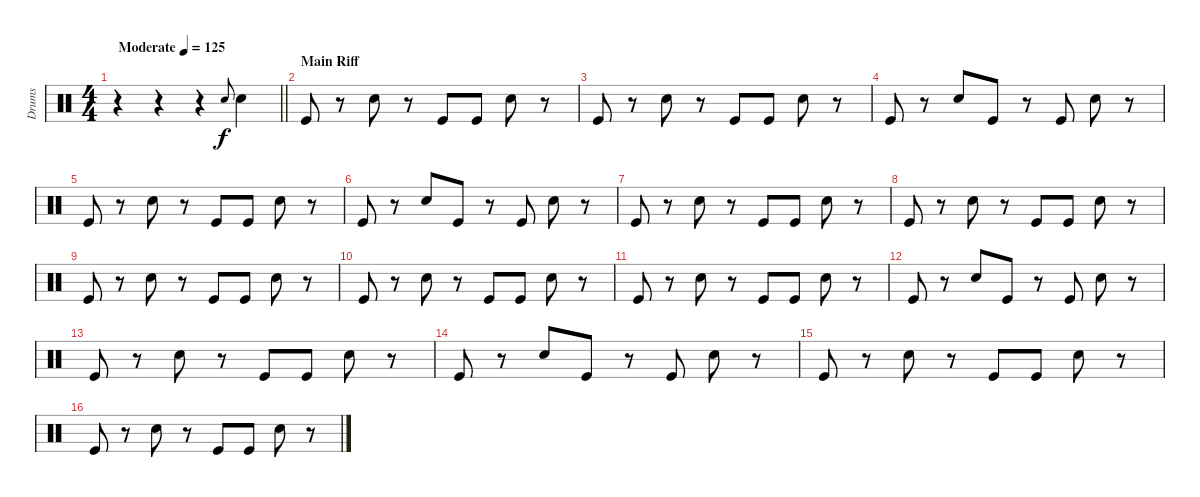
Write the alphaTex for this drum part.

\track ("Drums" "Drums") {instrument percussion}
\staff {score}
\articulation defaults
\ts (4 4)
\tempo (125 "Moderate")
\clef neutral
\barLineRight lightlight
\ks c
r.4{dy f} r.4 r.4 "Snare (hit) 2".8{gr onbeat} "Snare (hit) 2".4 |
\section ("" "Main Riff")
"Kick (hit)".8 r.8 "Snare (hit) 2".8 r.8 "Kick (hit)".8 "Kick (hit)".8 "Snare (hit) 2".8 r.8 |
"Kick (hit)".8 r.8 "Snare (hit) 2".8 r.8 "Kick (hit)".8 "Kick (hit)".8 "Snare (hit) 2".8 r.8 |
"Kick (hit)".8 r.8 "Snare (hit) 2".8 "Kick (hit)".8 r.8 "Kick (hit)".8 "Snare (hit) 2".8 r.8 |
"Kick (hit)".8 r.8 "Snare (hit) 2".8 r.8 "Kick (hit)".8 "Kick (hit)".8 "Snare (hit) 2".8 r.8 |
"Kick (hit)".8 r.8 "Snare (hit) 2".8 "Kick (hit)".8 r.8 "Kick (hit)".8 "Snare (hit) 2".8 r.8 |
"Kick (hit)".8 r.8 "Snare (hit) 2".8 r.8 "Kick (hit)".8 "Kick (hit)".8 "Snare (hit) 2".8 r.8 |
"Kick (hit)".8 r.8 "Snare (hit) 2".8 r.8 "Kick (hit)".8 "Kick (hit)".8 "Snare (hit) 2".8 r.8 |
"Kick (hit)".8 r.8 "Snare (hit) 2".8 r.8 "Kick (hit)".8 "Kick (hit)".8 "Snare (hit) 2".8 r.8 |
"Kick (hit)".8 r.8 "Snare (hit) 2".8 r.8 "Kick (hit)".8 "Kick (hit)".8 "Snare (hit) 2".8 r.8 |
"Kick (hit)".8 r.8 "Snare (hit) 2".8 r.8 "Kick (hit)".8 "Kick (hit)".8 "Snare (hit) 2".8 r.8 |
"Kick (hit)".8 r.8 "Snare (hit) 2".8 "Kick (hit)".8 r.8 "Kick (hit)".8 "Snare (hit) 2".8 r.8 |
"Kick (hit)".8 r.8 "Snare (hit) 2".8 r.8 "Kick (hit)".8 "Kick (hit)".8 "Snare (hit) 2".8 r.8 |
"Kick (hit)".8 r.8 "Snare (hit) 2".8 "Kick (hit)".8 r.8 "Kick (hit)".8 "Snare (hit) 2".8 r.8 |
"Kick (hit)".8 r.8 "Snare (hit) 2".8 r.8 "Kick (hit)".8 "Kick (hit)".8 "Snare (hit) 2".8 r.8 |
"Kick (hit)".8 r.8 "Snare (hit) 2".8 r.8 "Kick (hit)".8 "Kick (hit)".8 "Snare (hit) 2".8 r.8
